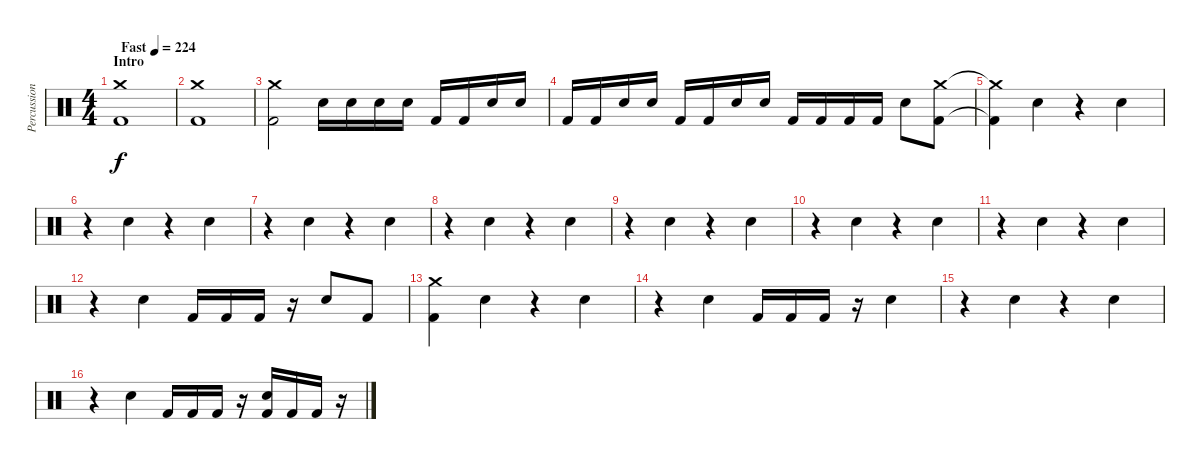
\track ("Percussion" "Percussion") {instrument percussion}
\staff {score}
\articulation defaults
\ts (4 4)
\section ("" "Intro")
\tempo (224 "Fast")
\clef neutral
\ks c
("Kick (hit) 2" "Crash medium (hit)").1{dy f} |
("Kick (hit) 2" "Crash medium (hit)").1 |
("Kick (hit) 2" "Crash medium (hit)").2 "Snare (hit) 2".16 "Snare (hit) 2".16 "Snare (hit) 2".16 "Snare (hit) 2".16 "Kick (hit) 2".16 "Kick (hit) 2".16 "Snare (hit) 2".16 "Snare (hit) 2".16 |
"Kick (hit) 2".16 "Kick (hit) 2".16 "Snare (hit) 2".16 "Snare (hit) 2".16 "Kick (hit) 2".16 "Kick (hit) 2".16 "Snare (hit) 2".16 "Snare (hit) 2".16 "Kick (hit) 2".16 "Kick (hit) 2".16 "Kick (hit) 2".16 "Kick (hit) 2".16 "Snare (hit) 2".8 ("Kick (hit) 2" "Crash medium (hit)").8 |
("Kick (hit) 2"{t} "Crash medium (hit)"{t}).4 "Snare (hit) 2".4 r.4 "Snare (hit) 2".4 |
r.4 "Snare (hit) 2".4 r.4 "Snare (hit) 2".4 |
r.4 "Snare (hit) 2".4 r.4 "Snare (hit) 2".4 |
r.4 "Snare (hit) 2".4 r.4 "Snare (hit) 2".4 |
r.4 "Snare (hit) 2".4 r.4 "Snare (hit) 2".4 |
r.4 "Snare (hit) 2".4 r.4 "Snare (hit) 2".4 |
r.4 "Snare (hit) 2".4 r.4 "Snare (hit) 2".4 |
r.4 "Snare (hit) 2".4 "Kick (hit) 2".16 "Kick (hit) 2".16 "Kick (hit) 2".16 r.16 "Snare (hit) 2".8 "Kick (hit) 2".8 |
("Kick (hit) 2" "Crash medium (hit)").4 "Snare (hit) 2".4 r.4 "Snare (hit) 2".4 |
r.4 "Snare (hit) 2".4 "Kick (hit) 2".16 "Kick (hit) 2".16 "Kick (hit) 2".16 r.16 "Snare (hit) 2".4 |
r.4 "Snare (hit) 2".4 r.4 "Snare (hit) 2".4 |
r.4 "Snare (hit) 2".4 "Kick (hit) 2".16 "Kick (hit) 2".16 "Kick (hit) 2".16 r.16 ("Kick (hit) 2" "Snare (hit) 2").16 "Kick (hit) 2".16 "Kick (hit) 2".16 r.16
